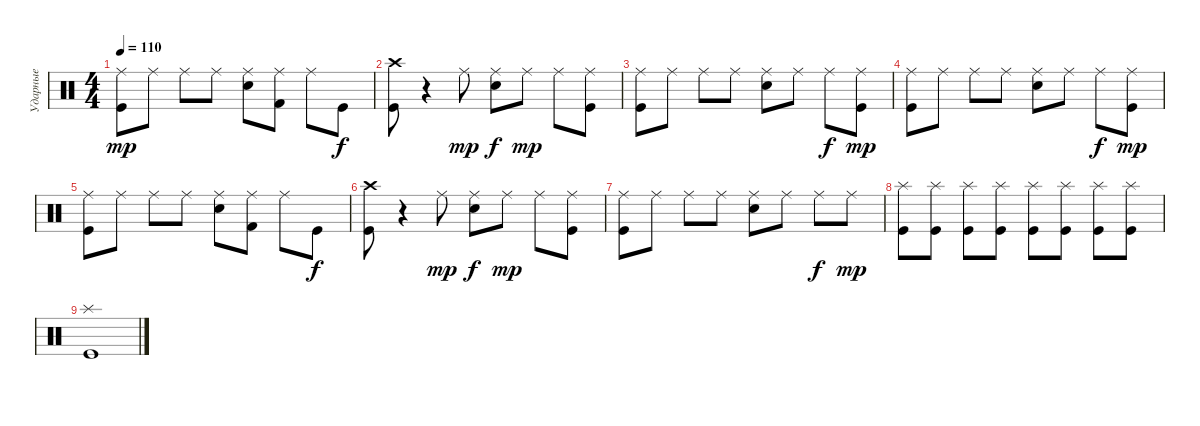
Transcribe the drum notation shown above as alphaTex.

\track ("Ударные" "Ударные") {instrument percussion}
\staff {score}
\articulation defaults
\ts (4 4)
\tempo 110
\clef neutral
\ks c
("Ride (middle)" "Kick (hit)").8{dy mp} "Ride (middle)".8 "Ride (middle)".8 "Ride (middle)".8 ("Ride (middle)" "Snare (hit) 2").8 ("Ride (middle)" "Kick (hit) 2").8 "Ride (middle)".8 "Kick (hit)".8{dy f} |
("Crash high (hit)" "Kick (hit)").8 r.4 "Ride (middle)".8{dy mp} ("Ride (middle)" "Snare (hit) 2").8{dy f} "Ride (middle)".8{dy mp} "Ride (middle)".8 ("Ride (middle)" "Kick (hit)").8 |
("Ride (middle)" "Kick (hit)").8 "Ride (middle)".8 "Ride (middle)".8 "Ride (middle)".8 ("Ride (middle)" "Snare (hit) 2").8 "Ride (middle)".8 "Ride (middle)".8{dy f} ("Ride (middle)" "Kick (hit)").8{dy mp} |
("Ride (middle)" "Kick (hit)").8 "Ride (middle)".8 "Ride (middle)".8 "Ride (middle)".8 ("Ride (middle)" "Snare (hit) 2").8 "Ride (middle)".8 "Ride (middle)".8{dy f} ("Ride (middle)" "Kick (hit)").8{dy mp} |
("Ride (middle)" "Kick (hit)").8 "Ride (middle)".8 "Ride (middle)".8 "Ride (middle)".8 ("Ride (middle)" "Snare (hit) 2").8 ("Ride (middle)" "Kick (hit) 2").8 "Ride (middle)".8 "Kick (hit)".8{dy f} |
("Crash high (hit)" "Kick (hit)").8 r.4 "Ride (middle)".8{dy mp} ("Ride (middle)" "Snare (hit) 2").8{dy f} "Ride (middle)".8{dy mp} "Ride (middle)".8 ("Ride (middle)" "Kick (hit)").8 |
("Ride (middle)" "Kick (hit)").8 "Ride (middle)".8 "Ride (middle)".8 "Ride (middle)".8 ("Ride (middle)" "Snare (hit) 2").8 "Ride (middle)".8 "Ride (middle)".8{dy f} "Ride (middle)".8{dy mp} |
("Splash (hit)" "Kick (hit)").8 ("Splash (hit)" "Kick (hit)").8 ("Splash (hit)" "Kick (hit)").8 ("Splash (hit)" "Kick (hit)").8 ("Splash (hit)" "Kick (hit)").8 ("Splash (hit)" "Kick (hit)").8 ("Splash (hit)" "Kick (hit)").8 ("Splash (hit)" "Kick (hit)").8 |
("Splash (hit)" "Kick (hit)").1
